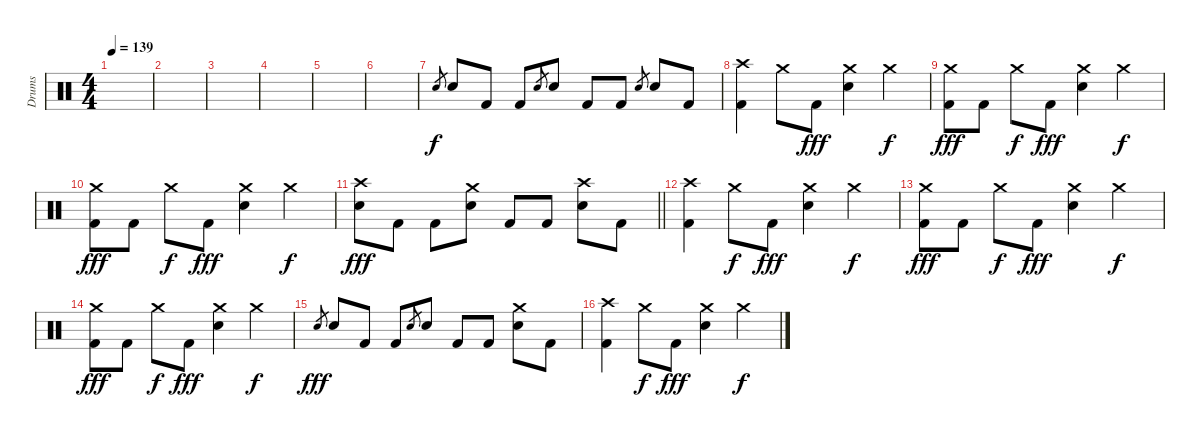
\track ("Drums" "Drums") {instrument percussion}
\staff {score}
\articulation defaults
\ts (4 4)
\tempo 139
\clef neutral
\ks c
|
|
|
|
|
|
"Electric Snare (hit)".8{gr} "Electric Snare (hit)".8 "Kick (hit) 2".8 "Kick (hit) 2".8 "Electric Snare (hit)".8{gr} "Electric Snare (hit)".8 "Kick (hit) 2".8 "Kick (hit) 2".8 "Electric Snare (hit)".8{gr} "Electric Snare (hit)".8 "Kick (hit) 2".8 |
("Kick (hit) 2" "Crash high (hit)").4 "Crash medium (hit)".8{dy f} "Kick (hit) 2".8{dy fff} ("Electric Snare (hit)" "Crash medium (hit)").4 "Crash medium (hit)".4{dy f} |
("Kick (hit) 2" "Crash medium (hit)").8{dy fff} "Kick (hit) 2".8 "Crash medium (hit)".8{dy f} "Kick (hit) 2".8{dy fff} ("Electric Snare (hit)" "Crash medium (hit)").4 "Crash medium (hit)".4{dy f} |
("Kick (hit) 2" "Crash medium (hit)").8{dy fff} "Kick (hit) 2".8 "Crash medium (hit)".8{dy f} "Kick (hit) 2".8{dy fff} ("Electric Snare (hit)" "Crash medium (hit)").4 "Crash medium (hit)".4{dy f} |
\barLineRight lightlight
("Electric Snare (hit)" "Crash high (hit)").8{dy fff} "Kick (hit) 2".8 "Kick (hit) 2".8 ("Electric Snare (hit)" "Crash medium (hit)").8 "Kick (hit) 2".8 "Kick (hit) 2".8 ("Electric Snare (hit)" "Crash high (hit)").8 "Kick (hit) 2".8 |
("Kick (hit) 2" "Crash high (hit)").4 "Crash medium (hit)".8{dy f} "Kick (hit) 2".8{dy fff} ("Electric Snare (hit)" "Crash medium (hit)").4 "Crash medium (hit)".4{dy f} |
("Kick (hit) 2" "Crash medium (hit)").8{dy fff} "Kick (hit) 2".8 "Crash medium (hit)".8{dy f} "Kick (hit) 2".8{dy fff} ("Electric Snare (hit)" "Crash medium (hit)").4 "Crash medium (hit)".4{dy f} |
("Kick (hit) 2" "Crash medium (hit)").8{dy fff} "Kick (hit) 2".8 "Crash medium (hit)".8{dy f} "Kick (hit) 2".8{dy fff} ("Electric Snare (hit)" "Crash medium (hit)").4 "Crash medium (hit)".4{dy f} |
"Electric Snare (hit)".8{gr dy fff} "Electric Snare (hit)".8 "Kick (hit) 2".8 "Kick (hit) 2".8 "Electric Snare (hit)".8{gr} "Electric Snare (hit)".8 "Kick (hit) 2".8 "Kick (hit) 2".8 ("Electric Snare (hit)" "Crash medium (hit)").8 "Kick (hit) 2".8 |
("Kick (hit) 2" "Crash high (hit)").4 "Crash medium (hit)".8{dy f} "Kick (hit) 2".8{dy fff} ("Electric Snare (hit)" "Crash medium (hit)").4 "Crash medium (hit)".4{dy f}
